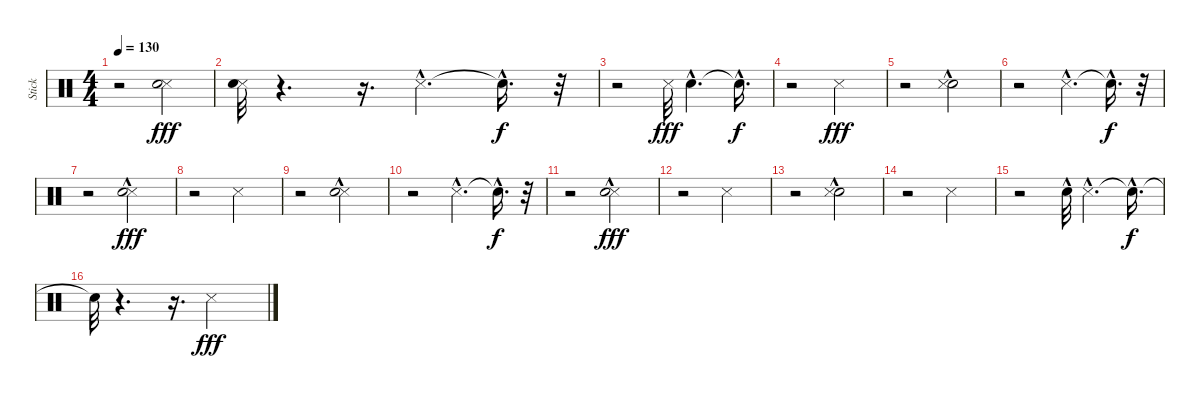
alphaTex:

\track ("Stick" "Stick") {instrument percussion}
\staff {score}
\articulation defaults
\ts (4 4)
\tempo 130
\clef neutral
\ks c
r.2{dy fff} ("Snare (side stick) 3" "Snare (hit) 2").2 |
("Snare (side stick) 3" "Snare (hit) 2").32 r.4{d} r.16{d} "Snare (side stick) 3"{hac}.4{d} "Snare (hit)"{hac t}.16{d dy f} r.32 |
r.2 "Snare (side stick) 3".32{dy fff} "Snare (hit) 2"{hac}.4{d} "Snare (hit)"{hac t}.16{d dy f} |
r.2 "Snare (side stick) 3".2{dy fff} |
r.2 ("Snare (hit) 2" "Snare (side stick) 3"{hac}).2 |
r.2 "Snare (side stick) 3"{hac}.4{d} "Snare (hit)"{hac t}.16{d dy f} r.32 |
r.2 ("Snare (side stick) 3" "Snare (hit) 2"{hac}).2{dy fff} |
r.2 "Snare (side stick) 3".2 |
r.2 ("Snare (side stick) 3" "Snare (hit) 2"{hac}).2 |
r.2 "Snare (side stick) 3"{hac}.4{d} "Snare (hit)"{hac t}.16{d dy f} r.32 |
r.2 ("Snare (side stick) 3" "Snare (hit) 2"{hac}).2{dy fff} |
r.2 "Snare (side stick) 3".2 |
r.2 ("Snare (hit) 2"{hac} "Snare (side stick) 3").2 |
r.2 "Snare (side stick) 3".2 |
r.2 "Snare (hit) 2"{hac}.32 "Snare (side stick) 3"{hac}.4{d} "Snare (hit)"{hac t}.16{d dy f} |
"Snare (hit)"{t}.32 r.4{d} r.16{d} "Snare (side stick) 3".2{dy fff}
